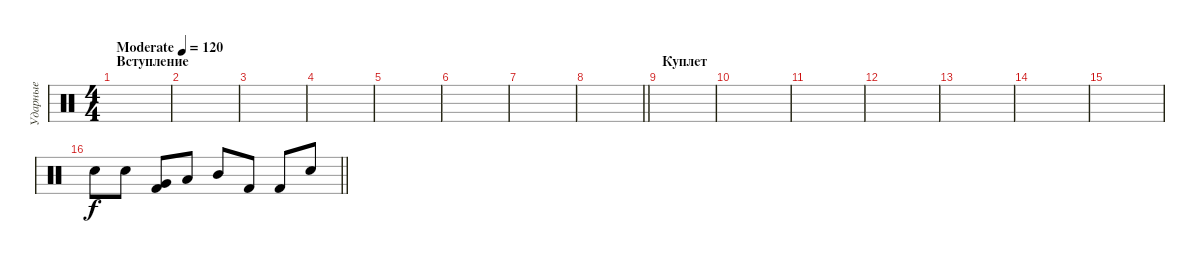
\track ("Ударные" "Ударные") {instrument percussion}
\staff {score}
\articulation defaults
\ts (4 4)
\section ("" "Вступление")
\tempo (120 "Moderate")
\clef neutral
\ks c
|
|
|
|
|
|
|
\barLineRight lightlight
|
\section ("" "Куплет")
|
|
|
|
|
|
|
\barLineRight lightlight "Electric Snare (hit)".8 "Electric Snare (hit)".8
("Very Low Tom (hit)" "Kick (hit) 2").8 "Low Tom (hit)".8 "Mid Tom (hit)".8 "Kick (hit) 2".8 "Kick (hit) 2".8 "Electric Snare (hit)".8
